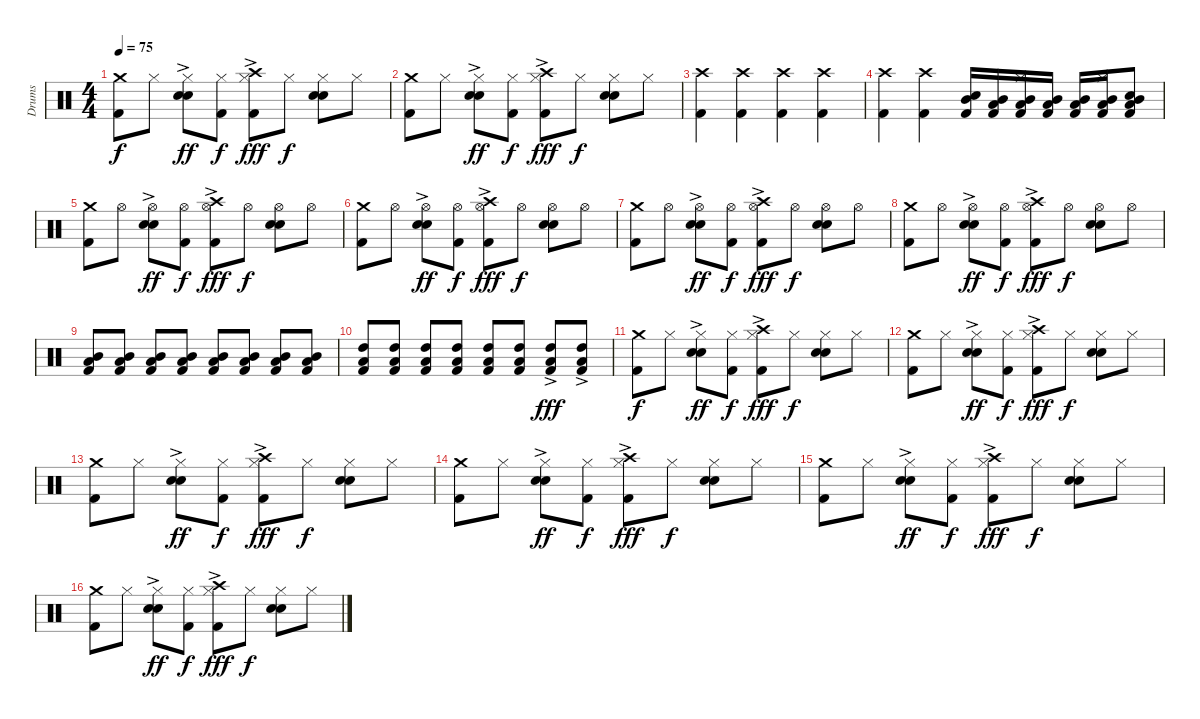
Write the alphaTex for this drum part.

\track ("Drums" "Drums") {instrument percussion}
\staff {score}
\articulation defaults
\ts (4 4)
\tempo 75
\clef neutral
\ks c
("Crash medium (hit)" "Kick (hit) 2").8{dy f} "Hi-Hat (closed)".8 ("Snare (hit) 2"{ac} "Electric Snare (hit)"{ac} "Hi-Hat (closed)").8{dy ff} ("Kick (hit) 2" "Hi-Hat (closed)").8{dy f} ("Crash high (hit)"{ac} "Kick (hit) 2" "Hi-Hat (closed)").8{dy fff} "Hi-Hat (closed)".8{dy f} ("Snare (hit) 2" "Electric Snare (hit)" "Hi-Hat (closed)").8 "Hi-Hat (closed)".8 |
("Crash medium (hit)" "Kick (hit) 2").8 "Hi-Hat (closed)".8 ("Snare (hit) 2"{ac} "Electric Snare (hit)"{ac} "Hi-Hat (closed)").8{dy ff} ("Kick (hit) 2" "Hi-Hat (closed)").8{dy f} ("Crash high (hit)"{ac} "Kick (hit) 2" "Hi-Hat (closed)").8{dy fff} "Hi-Hat (closed)".8{dy f} ("Snare (hit) 2" "Electric Snare (hit)" "Hi-Hat (closed)").8 "Hi-Hat (closed)".8 |
("Crash high (hit)" "Kick (hit) 2").4 ("Crash high (hit)" "Kick (hit) 2").4 ("Crash high (hit)" "Kick (hit) 2").4 ("Crash high (hit)" "Kick (hit) 2").4 |
("Crash high (hit)" "Kick (hit) 2").4 ("Crash high (hit)" "Kick (hit) 2").4 ("Snare (hit) 2" "Mid Tom (hit)" "Kick (hit) 2").16 ("Low Tom (hit)" "Mid Tom (hit)" "Kick (hit) 2").16 ("Hi-Hat (closed)" "Low Tom (hit)" "Mid Tom (hit)" "Kick (hit) 2").16 ("Low Tom (hit)" "Mid Tom (hit)" "Kick (hit) 2").16 ("Low Tom (hit)" "Mid Tom (hit)" "Kick (hit) 2").16 ("Hi-Hat (closed)" "Low Tom (hit)" "Mid Tom (hit)" "Kick (hit) 2").16 ("Snare (hit) 2" "Low Tom (hit)" "Mid Tom (hit)" "Kick (hit) 2").8 |
("Crash medium (hit)" "Kick (hit) 2").8 "Hi-Hat (open)".8 ("Snare (hit) 2"{ac} "Electric Snare (hit)"{ac} "Hi-Hat (open)").8{dy ff} ("Kick (hit) 2" "Hi-Hat (open)").8{dy f} ("Crash high (hit)"{ac} "Kick (hit) 2" "Hi-Hat (open)").8{dy fff} "Hi-Hat (open)".8{dy f} ("Snare (hit) 2" "Electric Snare (hit)" "Hi-Hat (open)").8 "Hi-Hat (open)".8 |
("Crash medium (hit)" "Kick (hit) 2").8 "Hi-Hat (open)".8 ("Snare (hit) 2"{ac} "Electric Snare (hit)"{ac} "Hi-Hat (open)").8{dy ff} ("Kick (hit) 2" "Hi-Hat (open)").8{dy f} ("Crash high (hit)"{ac} "Kick (hit) 2" "Hi-Hat (open)").8{dy fff} "Hi-Hat (open)".8{dy f} ("Snare (hit) 2" "Electric Snare (hit)" "Hi-Hat (open)").8 "Hi-Hat (open)".8 |
("Crash medium (hit)" "Kick (hit) 2").8 "Hi-Hat (open)".8 ("Snare (hit) 2"{ac} "Electric Snare (hit)"{ac} "Hi-Hat (open)").8{dy ff} ("Kick (hit) 2" "Hi-Hat (open)").8{dy f} ("Crash high (hit)"{ac} "Kick (hit) 2" "Hi-Hat (open)").8{dy fff} "Hi-Hat (open)".8{dy f} ("Snare (hit) 2" "Electric Snare (hit)" "Hi-Hat (open)").8 "Hi-Hat (open)".8 |
("Crash medium (hit)" "Kick (hit) 2").8 "Hi-Hat (open)".8 ("Snare (hit) 2"{ac} "Electric Snare (hit)"{ac} "Hi-Hat (open)").8{dy ff} ("Kick (hit) 2" "Hi-Hat (open)").8{dy f} ("Crash high (hit)"{ac} "Kick (hit) 2" "Hi-Hat (open)").8{dy fff} "Hi-Hat (open)".8{dy f} ("Snare (hit) 2" "Electric Snare (hit)" "Hi-Hat (open)").8 "Hi-Hat (open)".8 |
("Low Tom (hit)" "Mid Tom (hit)" "Kick (hit) 2").8 ("Low Tom (hit)" "Mid Tom (hit)" "Kick (hit) 2").8 ("Low Tom (hit)" "Mid Tom (hit)" "Kick (hit) 2").8 ("Low Tom (hit)" "Mid Tom (hit)" "Kick (hit) 2").8 ("Low Tom (hit)" "Mid Tom (hit)" "Kick (hit) 2").8 ("Low Tom (hit)" "Mid Tom (hit)" "Kick (hit) 2").8 ("Low Tom (hit)" "Mid Tom (hit)" "Kick (hit) 2").8 ("Low Tom (hit)" "Mid Tom (hit)" "Kick (hit) 2").8 |
("High Tom (hit)" "Kick (hit) 2" "Low Tom (hit)").8 ("High Tom (hit)" "Kick (hit) 2" "Low Tom (hit)").8 ("High Tom (hit)" "Kick (hit) 2" "Low Tom (hit)").8 ("High Tom (hit)" "Kick (hit) 2" "Low Tom (hit)").8 ("High Tom (hit)" "Kick (hit) 2" "Low Tom (hit)").8 ("High Tom (hit)" "Kick (hit) 2" "Low Tom (hit)").8 ("High Tom (hit)"{ac} "Kick (hit) 2"{ac} "Low Tom (hit)"{ac}).8{dy fff} ("High Tom (hit)"{ac} "Kick (hit) 2"{ac} "Low Tom (hit)"{ac}).8 |
("Crash medium (hit)" "Kick (hit) 2").8{dy f} "Hi-Hat (closed)".8 ("Snare (hit) 2"{ac} "Electric Snare (hit)"{ac} "Hi-Hat (closed)").8{dy ff} ("Kick (hit) 2" "Hi-Hat (closed)").8{dy f} ("Crash high (hit)"{ac} "Kick (hit) 2" "Hi-Hat (closed)").8{dy fff} "Hi-Hat (closed)".8{dy f} ("Snare (hit) 2" "Electric Snare (hit)" "Hi-Hat (closed)").8 "Hi-Hat (closed)".8 |
("Crash medium (hit)" "Kick (hit) 2").8 "Hi-Hat (closed)".8 ("Snare (hit) 2"{ac} "Electric Snare (hit)"{ac} "Hi-Hat (closed)").8{dy ff} ("Kick (hit) 2" "Hi-Hat (closed)").8{dy f} ("Crash high (hit)"{ac} "Kick (hit) 2" "Hi-Hat (closed)").8{dy fff} "Hi-Hat (closed)".8{dy f} ("Snare (hit) 2" "Electric Snare (hit)" "Hi-Hat (closed)").8 "Hi-Hat (closed)".8 |
("Crash medium (hit)" "Kick (hit) 2").8 "Hi-Hat (closed)".8 ("Snare (hit) 2"{ac} "Electric Snare (hit)"{ac} "Hi-Hat (closed)").8{dy ff} ("Kick (hit) 2" "Hi-Hat (closed)").8{dy f} ("Crash high (hit)"{ac} "Kick (hit) 2" "Hi-Hat (closed)").8{dy fff} "Hi-Hat (closed)".8{dy f} ("Snare (hit) 2" "Electric Snare (hit)" "Hi-Hat (closed)").8 "Hi-Hat (closed)".8 |
("Crash medium (hit)" "Kick (hit) 2").8 "Hi-Hat (closed)".8 ("Snare (hit) 2"{ac} "Electric Snare (hit)"{ac} "Hi-Hat (closed)").8{dy ff} ("Kick (hit) 2" "Hi-Hat (closed)").8{dy f} ("Crash high (hit)"{ac} "Kick (hit) 2" "Hi-Hat (closed)").8{dy fff} "Hi-Hat (closed)".8{dy f} ("Snare (hit) 2" "Electric Snare (hit)" "Hi-Hat (closed)").8 "Hi-Hat (closed)".8 |
("Crash medium (hit)" "Kick (hit) 2").8 "Hi-Hat (closed)".8 ("Snare (hit) 2"{ac} "Electric Snare (hit)"{ac} "Hi-Hat (closed)").8{dy ff} ("Kick (hit) 2" "Hi-Hat (closed)").8{dy f} ("Crash high (hit)"{ac} "Kick (hit) 2" "Hi-Hat (closed)").8{dy fff} "Hi-Hat (closed)".8{dy f} ("Snare (hit) 2" "Electric Snare (hit)" "Hi-Hat (closed)").8 "Hi-Hat (closed)".8 |
("Crash medium (hit)" "Kick (hit) 2").8 "Hi-Hat (closed)".8 ("Snare (hit) 2"{ac} "Electric Snare (hit)"{ac} "Hi-Hat (closed)").8{dy ff} ("Kick (hit) 2" "Hi-Hat (closed)").8{dy f} ("Crash high (hit)"{ac} "Kick (hit) 2" "Hi-Hat (closed)").8{dy fff} "Hi-Hat (closed)".8{dy f} ("Snare (hit) 2" "Electric Snare (hit)" "Hi-Hat (closed)").8 "Hi-Hat (closed)".8
